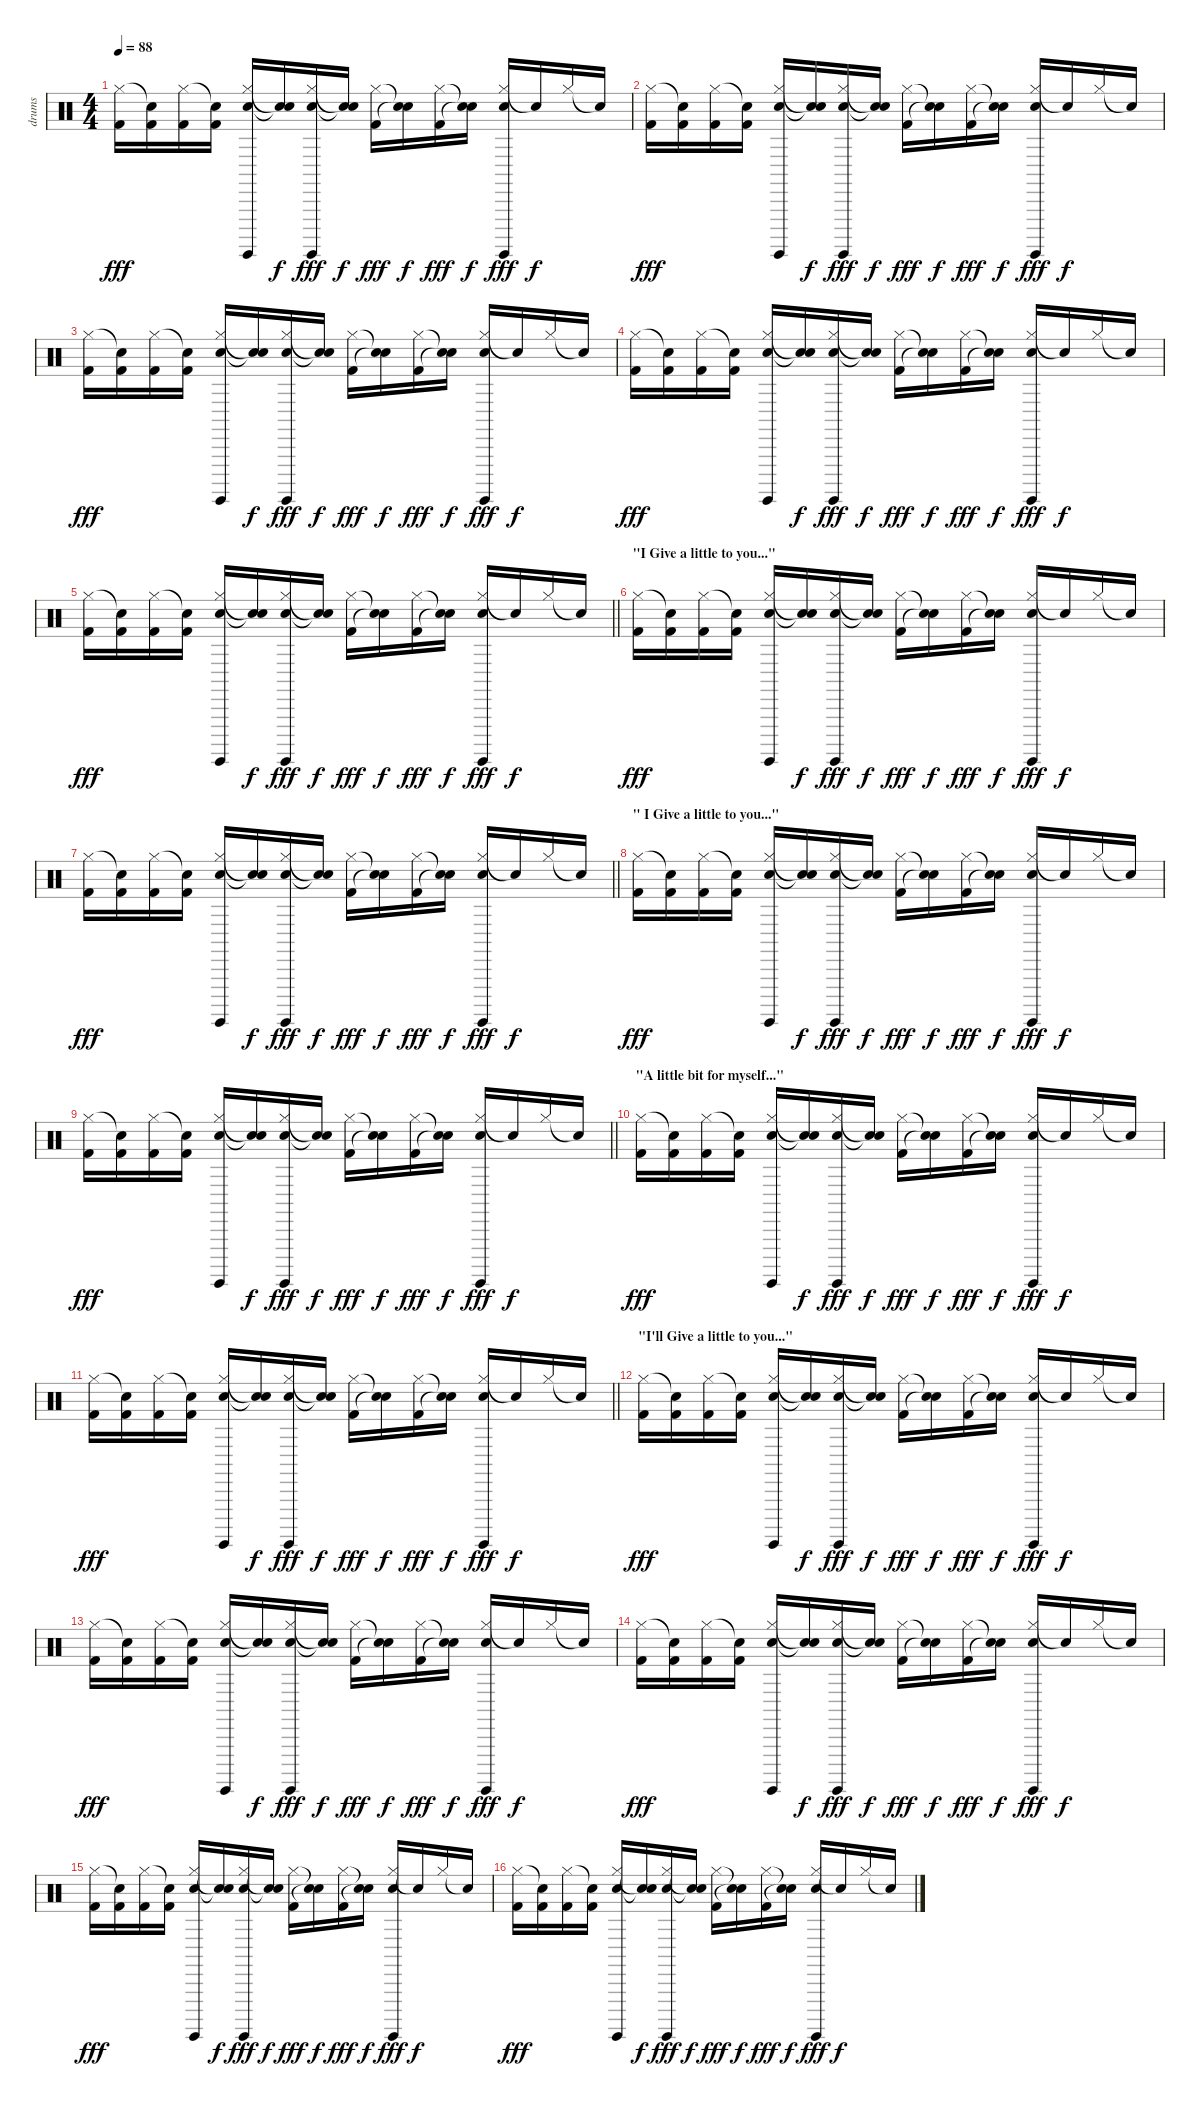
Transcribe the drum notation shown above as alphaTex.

\track ("drums" "drums") {instrument percussion}
\staff {score}
\articulation defaults
\ts (4 4)
\tempo 88
\clef neutral
\ks c
("Hi-Hat (closed)" "Kick (hit) 2").16{dy fff} ("Snare (hit)"{t} "Kick (hit) 2").16 ("Hi-Hat (closed)" "Kick (hit) 2").16 ("Snare (hit)"{t} "Kick (hit) 2").16 ("Hi-Hat (closed)" "Snare (hit) 2" "Surdo (hit)").16 ("Snare (hit)"{t} "Snare (hit)"{t}).16{dy f} ("Hi-Hat (closed)" "Snare (hit) 2" "Surdo (hit)").16{dy fff} ("Snare (hit)"{t} "Snare (hit)"{t}).16{dy f} ("Hi-Hat (closed)" "Kick (hit) 2").16{dy fff} ("Snare (hit)"{t} "Snare (hit)"{t}).16{dy f} ("Hi-Hat (closed)" "Kick (hit) 2").16{dy fff} ("Snare (hit)"{t} "Snare (hit)"{t}).16{dy f} ("Hi-Hat (closed)" "Snare (hit) 2" "Surdo (hit)").16{dy fff} "Snare (hit)"{t}.16{dy f} "Hi-Hat (closed)".16 "Snare (hit)"{t}.16 |
("Hi-Hat (closed)" "Kick (hit) 2").16{dy fff} ("Snare (hit)"{t} "Kick (hit) 2").16 ("Hi-Hat (closed)" "Kick (hit) 2").16 ("Snare (hit)"{t} "Kick (hit) 2").16 ("Hi-Hat (closed)" "Snare (hit) 2" "Surdo (hit)").16 ("Snare (hit)"{t} "Snare (hit)"{t}).16{dy f} ("Hi-Hat (closed)" "Snare (hit) 2" "Surdo (hit)").16{dy fff} ("Snare (hit)"{t} "Snare (hit)"{t}).16{dy f} ("Hi-Hat (closed)" "Kick (hit) 2").16{dy fff} ("Snare (hit)"{t} "Snare (hit)"{t}).16{dy f} ("Hi-Hat (closed)" "Kick (hit) 2").16{dy fff} ("Snare (hit)"{t} "Snare (hit)"{t}).16{dy f} ("Hi-Hat (closed)" "Snare (hit) 2" "Surdo (hit)").16{dy fff} "Snare (hit)"{t}.16{dy f} "Hi-Hat (closed)".16 "Snare (hit)"{t}.16 |
("Hi-Hat (closed)" "Kick (hit) 2").16{dy fff} ("Snare (hit)"{t} "Kick (hit) 2").16 ("Hi-Hat (closed)" "Kick (hit) 2").16 ("Snare (hit)"{t} "Kick (hit) 2").16 ("Hi-Hat (closed)" "Snare (hit) 2" "Surdo (hit)").16 ("Snare (hit)"{t} "Snare (hit)"{t}).16{dy f} ("Hi-Hat (closed)" "Snare (hit) 2" "Surdo (hit)").16{dy fff} ("Snare (hit)"{t} "Snare (hit)"{t}).16{dy f} ("Hi-Hat (closed)" "Kick (hit) 2").16{dy fff} ("Snare (hit)"{t} "Snare (hit)"{t}).16{dy f} ("Hi-Hat (closed)" "Kick (hit) 2").16{dy fff} ("Snare (hit)"{t} "Snare (hit)"{t}).16{dy f} ("Hi-Hat (closed)" "Snare (hit) 2" "Surdo (hit)").16{dy fff} "Snare (hit)"{t}.16{dy f} "Hi-Hat (closed)".16 "Snare (hit)"{t}.16 |
("Hi-Hat (closed)" "Kick (hit) 2").16{dy fff} ("Snare (hit)"{t} "Kick (hit) 2").16 ("Hi-Hat (closed)" "Kick (hit) 2").16 ("Snare (hit)"{t} "Kick (hit) 2").16 ("Hi-Hat (closed)" "Snare (hit) 2" "Surdo (hit)").16 ("Snare (hit)"{t} "Snare (hit)"{t}).16{dy f} ("Hi-Hat (closed)" "Snare (hit) 2" "Surdo (hit)").16{dy fff} ("Snare (hit)"{t} "Snare (hit)"{t}).16{dy f} ("Hi-Hat (closed)" "Kick (hit) 2").16{dy fff} ("Snare (hit)"{t} "Snare (hit)"{t}).16{dy f} ("Hi-Hat (closed)" "Kick (hit) 2").16{dy fff} ("Snare (hit)"{t} "Snare (hit)"{t}).16{dy f} ("Hi-Hat (closed)" "Snare (hit) 2" "Surdo (hit)").16{dy fff} "Snare (hit)"{t}.16{dy f} "Hi-Hat (closed)".16 "Snare (hit)"{t}.16 |
\barLineRight lightlight
("Hi-Hat (closed)" "Kick (hit) 2").16{dy fff} ("Snare (hit)"{t} "Kick (hit) 2").16 ("Hi-Hat (closed)" "Kick (hit) 2").16 ("Snare (hit)"{t} "Kick (hit) 2").16 ("Hi-Hat (closed)" "Snare (hit) 2" "Surdo (hit)").16 ("Snare (hit)"{t} "Snare (hit)"{t}).16{dy f} ("Hi-Hat (closed)" "Snare (hit) 2" "Surdo (hit)").16{dy fff} ("Snare (hit)"{t} "Snare (hit)"{t}).16{dy f} ("Hi-Hat (closed)" "Kick (hit) 2").16{dy fff} ("Snare (hit)"{t} "Snare (hit)"{t}).16{dy f} ("Hi-Hat (closed)" "Kick (hit) 2").16{dy fff} ("Snare (hit)"{t} "Snare (hit)"{t}).16{dy f} ("Hi-Hat (closed)" "Snare (hit) 2" "Surdo (hit)").16{dy fff} "Snare (hit)"{t}.16{dy f} "Hi-Hat (closed)".16 "Snare (hit)"{t}.16 |
\section ("" "\"I Give a little to you...\"")
("Hi-Hat (closed)" "Kick (hit) 2").16{dy fff} ("Snare (hit)"{t} "Kick (hit) 2").16 ("Hi-Hat (closed)" "Kick (hit) 2").16 ("Snare (hit)"{t} "Kick (hit) 2").16 ("Hi-Hat (closed)" "Snare (hit) 2" "Surdo (hit)").16 ("Snare (hit)"{t} "Snare (hit)"{t}).16{dy f} ("Hi-Hat (closed)" "Snare (hit) 2" "Surdo (hit)").16{dy fff} ("Snare (hit)"{t} "Snare (hit)"{t}).16{dy f} ("Hi-Hat (closed)" "Kick (hit) 2").16{dy fff} ("Snare (hit)"{t} "Snare (hit)"{t}).16{dy f} ("Hi-Hat (closed)" "Kick (hit) 2").16{dy fff} ("Snare (hit)"{t} "Snare (hit)"{t}).16{dy f} ("Hi-Hat (closed)" "Snare (hit) 2" "Surdo (hit)").16{dy fff} "Snare (hit)"{t}.16{dy f} "Hi-Hat (closed)".16 "Snare (hit)"{t}.16 |
\barLineRight lightlight
("Hi-Hat (closed)" "Kick (hit) 2").16{dy fff} ("Snare (hit)"{t} "Kick (hit) 2").16 ("Hi-Hat (closed)" "Kick (hit) 2").16 ("Snare (hit)"{t} "Kick (hit) 2").16 ("Hi-Hat (closed)" "Snare (hit) 2" "Surdo (hit)").16 ("Snare (hit)"{t} "Snare (hit)"{t}).16{dy f} ("Hi-Hat (closed)" "Snare (hit) 2" "Surdo (hit)").16{dy fff} ("Snare (hit)"{t} "Snare (hit)"{t}).16{dy f} ("Hi-Hat (closed)" "Kick (hit) 2").16{dy fff} ("Snare (hit)"{t} "Snare (hit)"{t}).16{dy f} ("Hi-Hat (closed)" "Kick (hit) 2").16{dy fff} ("Snare (hit)"{t} "Snare (hit)"{t}).16{dy f} ("Hi-Hat (closed)" "Snare (hit) 2" "Surdo (hit)").16{dy fff} "Snare (hit)"{t}.16{dy f} "Hi-Hat (closed)".16 "Snare (hit)"{t}.16 |
\section ("" "\" I Give a little to you...\"")
("Hi-Hat (closed)" "Kick (hit) 2").16{dy fff} ("Snare (hit)"{t} "Kick (hit) 2").16 ("Hi-Hat (closed)" "Kick (hit) 2").16 ("Snare (hit)"{t} "Kick (hit) 2").16 ("Hi-Hat (closed)" "Snare (hit) 2" "Surdo (hit)").16 ("Snare (hit)"{t} "Snare (hit)"{t}).16{dy f} ("Hi-Hat (closed)" "Snare (hit) 2" "Surdo (hit)").16{dy fff} ("Snare (hit)"{t} "Snare (hit)"{t}).16{dy f} ("Hi-Hat (closed)" "Kick (hit) 2").16{dy fff} ("Snare (hit)"{t} "Snare (hit)"{t}).16{dy f} ("Hi-Hat (closed)" "Kick (hit) 2").16{dy fff} ("Snare (hit)"{t} "Snare (hit)"{t}).16{dy f} ("Hi-Hat (closed)" "Snare (hit) 2" "Surdo (hit)").16{dy fff} "Snare (hit)"{t}.16{dy f} "Hi-Hat (closed)".16 "Snare (hit)"{t}.16 |
\barLineRight lightlight
("Hi-Hat (closed)" "Kick (hit) 2").16{dy fff} ("Snare (hit)"{t} "Kick (hit) 2").16 ("Hi-Hat (closed)" "Kick (hit) 2").16 ("Snare (hit)"{t} "Kick (hit) 2").16 ("Hi-Hat (closed)" "Snare (hit) 2" "Surdo (hit)").16 ("Snare (hit)"{t} "Snare (hit)"{t}).16{dy f} ("Hi-Hat (closed)" "Snare (hit) 2" "Surdo (hit)").16{dy fff} ("Snare (hit)"{t} "Snare (hit)"{t}).16{dy f} ("Hi-Hat (closed)" "Kick (hit) 2").16{dy fff} ("Snare (hit)"{t} "Snare (hit)"{t}).16{dy f} ("Hi-Hat (closed)" "Kick (hit) 2").16{dy fff} ("Snare (hit)"{t} "Snare (hit)"{t}).16{dy f} ("Hi-Hat (closed)" "Snare (hit) 2" "Surdo (hit)").16{dy fff} "Snare (hit)"{t}.16{dy f} "Hi-Hat (closed)".16 "Snare (hit)"{t}.16 |
\section ("" "\"A little bit for myself...\"")
("Hi-Hat (closed)" "Kick (hit) 2").16{dy fff} ("Snare (hit)"{t} "Kick (hit) 2").16 ("Hi-Hat (closed)" "Kick (hit) 2").16 ("Snare (hit)"{t} "Kick (hit) 2").16 ("Hi-Hat (closed)" "Snare (hit) 2" "Surdo (hit)").16 ("Snare (hit)"{t} "Snare (hit)"{t}).16{dy f} ("Hi-Hat (closed)" "Snare (hit) 2" "Surdo (hit)").16{dy fff} ("Snare (hit)"{t} "Snare (hit)"{t}).16{dy f} ("Hi-Hat (closed)" "Kick (hit) 2").16{dy fff} ("Snare (hit)"{t} "Snare (hit)"{t}).16{dy f} ("Hi-Hat (closed)" "Kick (hit) 2").16{dy fff} ("Snare (hit)"{t} "Snare (hit)"{t}).16{dy f} ("Hi-Hat (closed)" "Snare (hit) 2" "Surdo (hit)").16{dy fff} "Snare (hit)"{t}.16{dy f} "Hi-Hat (closed)".16 "Snare (hit)"{t}.16 |
\barLineRight lightlight
("Hi-Hat (closed)" "Kick (hit) 2").16{dy fff} ("Snare (hit)"{t} "Kick (hit) 2").16 ("Hi-Hat (closed)" "Kick (hit) 2").16 ("Snare (hit)"{t} "Kick (hit) 2").16 ("Hi-Hat (closed)" "Snare (hit) 2" "Surdo (hit)").16 ("Snare (hit)"{t} "Snare (hit)"{t}).16{dy f} ("Hi-Hat (closed)" "Snare (hit) 2" "Surdo (hit)").16{dy fff} ("Snare (hit)"{t} "Snare (hit)"{t}).16{dy f} ("Hi-Hat (closed)" "Kick (hit) 2").16{dy fff} ("Snare (hit)"{t} "Snare (hit)"{t}).16{dy f} ("Hi-Hat (closed)" "Kick (hit) 2").16{dy fff} ("Snare (hit)"{t} "Snare (hit)"{t}).16{dy f} ("Hi-Hat (closed)" "Snare (hit) 2" "Surdo (hit)").16{dy fff} "Snare (hit)"{t}.16{dy f} "Hi-Hat (closed)".16 "Snare (hit)"{t}.16 |
\section ("" "\"I'll Give a little to you...\"")
("Hi-Hat (closed)" "Kick (hit) 2").16{dy fff} ("Snare (hit)"{t} "Kick (hit) 2").16 ("Hi-Hat (closed)" "Kick (hit) 2").16 ("Snare (hit)"{t} "Kick (hit) 2").16 ("Hi-Hat (closed)" "Snare (hit) 2" "Surdo (hit)").16 ("Snare (hit)"{t} "Snare (hit)"{t}).16{dy f} ("Hi-Hat (closed)" "Snare (hit) 2" "Surdo (hit)").16{dy fff} ("Snare (hit)"{t} "Snare (hit)"{t}).16{dy f} ("Hi-Hat (closed)" "Kick (hit) 2").16{dy fff} ("Snare (hit)"{t} "Snare (hit)"{t}).16{dy f} ("Hi-Hat (closed)" "Kick (hit) 2").16{dy fff} ("Snare (hit)"{t} "Snare (hit)"{t}).16{dy f} ("Hi-Hat (closed)" "Snare (hit) 2" "Surdo (hit)").16{dy fff} "Snare (hit)"{t}.16{dy f} "Hi-Hat (closed)".16 "Snare (hit)"{t}.16 |
("Hi-Hat (closed)" "Kick (hit) 2").16{dy fff} ("Snare (hit)"{t} "Kick (hit) 2").16 ("Hi-Hat (closed)" "Kick (hit) 2").16 ("Snare (hit)"{t} "Kick (hit) 2").16 ("Hi-Hat (closed)" "Snare (hit) 2" "Surdo (hit)").16 ("Snare (hit)"{t} "Snare (hit)"{t}).16{dy f} ("Hi-Hat (closed)" "Snare (hit) 2" "Surdo (hit)").16{dy fff} ("Snare (hit)"{t} "Snare (hit)"{t}).16{dy f} ("Hi-Hat (closed)" "Kick (hit) 2").16{dy fff} ("Snare (hit)"{t} "Snare (hit)"{t}).16{dy f} ("Hi-Hat (closed)" "Kick (hit) 2").16{dy fff} ("Snare (hit)"{t} "Snare (hit)"{t}).16{dy f} ("Hi-Hat (closed)" "Snare (hit) 2" "Surdo (hit)").16{dy fff} "Snare (hit)"{t}.16{dy f} "Hi-Hat (closed)".16 "Snare (hit)"{t}.16 |
("Hi-Hat (closed)" "Kick (hit) 2").16{dy fff} ("Snare (hit)"{t} "Kick (hit) 2").16 ("Hi-Hat (closed)" "Kick (hit) 2").16 ("Snare (hit)"{t} "Kick (hit) 2").16 ("Hi-Hat (closed)" "Snare (hit) 2" "Surdo (hit)").16 ("Snare (hit)"{t} "Snare (hit)"{t}).16{dy f} ("Hi-Hat (closed)" "Snare (hit) 2" "Surdo (hit)").16{dy fff} ("Snare (hit)"{t} "Snare (hit)"{t}).16{dy f} ("Hi-Hat (closed)" "Kick (hit) 2").16{dy fff} ("Snare (hit)"{t} "Snare (hit)"{t}).16{dy f} ("Hi-Hat (closed)" "Kick (hit) 2").16{dy fff} ("Snare (hit)"{t} "Snare (hit)"{t}).16{dy f} ("Hi-Hat (closed)" "Snare (hit) 2" "Surdo (hit)").16{dy fff} "Snare (hit)"{t}.16{dy f} "Hi-Hat (closed)".16 "Snare (hit)"{t}.16 |
("Hi-Hat (closed)" "Kick (hit) 2").16{dy fff} ("Snare (hit)"{t} "Kick (hit) 2").16 ("Hi-Hat (closed)" "Kick (hit) 2").16 ("Snare (hit)"{t} "Kick (hit) 2").16 ("Hi-Hat (closed)" "Snare (hit) 2" "Surdo (hit)").16 ("Snare (hit)"{t} "Snare (hit)"{t}).16{dy f} ("Hi-Hat (closed)" "Snare (hit) 2" "Surdo (hit)").16{dy fff} ("Snare (hit)"{t} "Snare (hit)"{t}).16{dy f} ("Hi-Hat (closed)" "Kick (hit) 2").16{dy fff} ("Snare (hit)"{t} "Snare (hit)"{t}).16{dy f} ("Hi-Hat (closed)" "Kick (hit) 2").16{dy fff} ("Snare (hit)"{t} "Snare (hit)"{t}).16{dy f} ("Hi-Hat (closed)" "Snare (hit) 2" "Surdo (hit)").16{dy fff} "Snare (hit)"{t}.16{dy f} "Hi-Hat (closed)".16 "Snare (hit)"{t}.16 |
("Hi-Hat (closed)" "Kick (hit) 2").16{dy fff} ("Snare (hit)"{t} "Kick (hit) 2").16 ("Hi-Hat (closed)" "Kick (hit) 2").16 ("Snare (hit)"{t} "Kick (hit) 2").16 ("Hi-Hat (closed)" "Snare (hit) 2" "Surdo (hit)").16 ("Snare (hit)"{t} "Snare (hit)"{t}).16{dy f} ("Hi-Hat (closed)" "Snare (hit) 2" "Surdo (hit)").16{dy fff} ("Snare (hit)"{t} "Snare (hit)"{t}).16{dy f} ("Hi-Hat (closed)" "Kick (hit) 2").16{dy fff} ("Snare (hit)"{t} "Snare (hit)"{t}).16{dy f} ("Hi-Hat (closed)" "Kick (hit) 2").16{dy fff} ("Snare (hit)"{t} "Snare (hit)"{t}).16{dy f} ("Hi-Hat (closed)" "Snare (hit) 2" "Surdo (hit)").16{dy fff} "Snare (hit)"{t}.16{dy f} "Hi-Hat (closed)".16 "Snare (hit)"{t}.16
